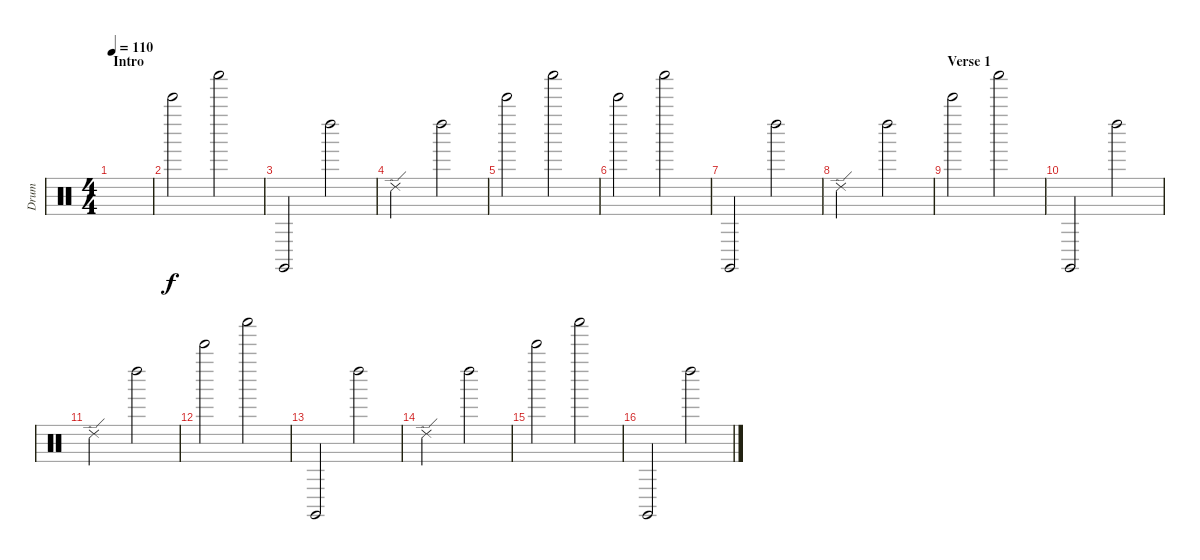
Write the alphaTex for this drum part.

\track ("Drum" "Drum") {instrument percussion}
\staff {score}
\articulation defaults
\ts (4 4)
\section ("" "Intro")
\tempo 110
\clef neutral
\ks c
|
"Bell Tree (hit)".2 "Shaker (hit)".2 |
"Claves (hit)".2 "Left Maraca (hit)".2 |
"Ride (edge) 2".2 "Left Maraca (hit)".2 |
\section ("" "")
"Bell Tree (hit)".2 "Shaker (hit)".2 |
"Bell Tree (hit)".2 "Shaker (hit)".2 |
"Claves (hit)".2 "Left Maraca (hit)".2 |
"Ride (edge) 2".2 "Left Maraca (hit)".2 |
\section ("" "Verse 1")
"Bell Tree (hit)".2 "Shaker (hit)".2 |
"Claves (hit)".2 "Left Maraca (hit)".2 |
"Ride (edge) 2".2 "Left Maraca (hit)".2 |
"Bell Tree (hit)".2 "Shaker (hit)".2 |
"Claves (hit)".2 "Left Maraca (hit)".2 |
"Ride (edge) 2".2 "Left Maraca (hit)".2 |
"Bell Tree (hit)".2 "Shaker (hit)".2 |
"Claves (hit)".2 "Left Maraca (hit)".2
